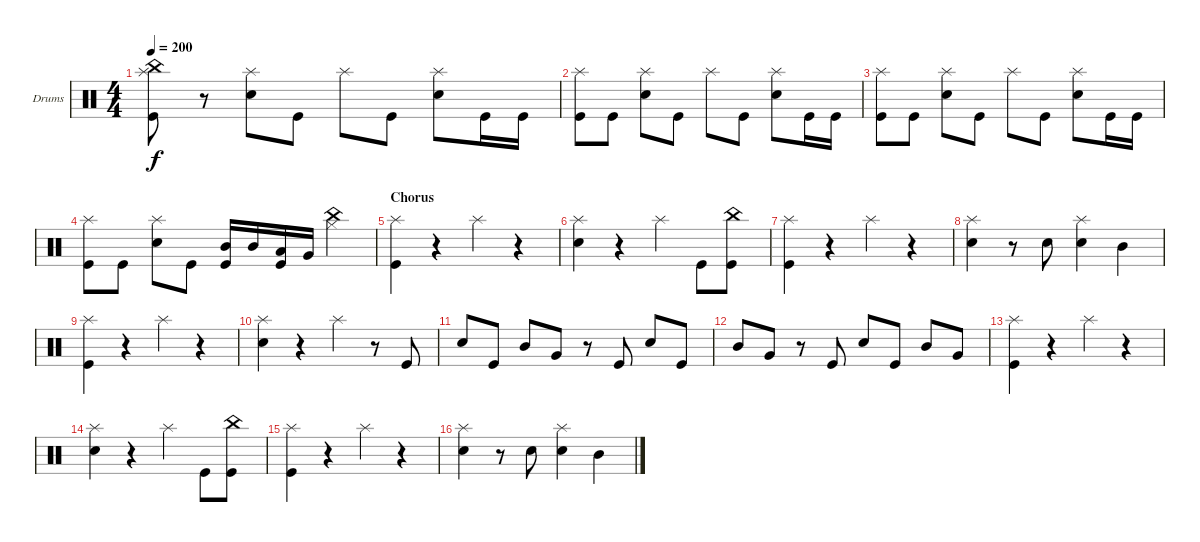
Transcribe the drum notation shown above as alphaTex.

\defaultSystemsLayout 4
\bracketExtendMode groupsimilarinstruments
\firstSystemTrackNameOrientation horizontal
\otherSystemsTrackNameOrientation horizontal
\track ("Drumkit" "Drums") {instrument percussion}
\staff {score}
\articulation defaults
\ts (4 4)
\tempo 200
\clef neutral
\ks c
("Splash (hit)" "Kick (hit)" "China (hit)").8{dy f} r.8 ("Splash (hit)" "Snare (hit) 2").8 "Kick (hit)".8 "Splash (hit)".8 "Kick (hit)".8 ("Splash (hit)" "Snare (hit) 2").8 "Kick (hit)".16 "Kick (hit)".16 |
("Splash (hit)" "Kick (hit)").8 "Kick (hit)".8 ("Splash (hit)" "Snare (hit) 2").8 "Kick (hit)".8 "Splash (hit)".8 "Kick (hit)".8 ("Splash (hit)" "Snare (hit) 2").8 "Kick (hit)".16 "Kick (hit)".16 |
("Splash (hit)" "Kick (hit)").8 "Kick (hit)".8 ("Splash (hit)" "Snare (hit) 2").8 "Kick (hit)".8 "Splash (hit)".8 "Kick (hit)".8 ("Splash (hit)" "Snare (hit) 2").8 "Kick (hit)".16 "Kick (hit)".16 |
("Splash (hit)" "Kick (hit)").8 "Kick (hit)".8 ("Splash (hit)" "Snare (hit) 2").8 "Kick (hit)".8 ("Mid Tom (hit)" "Kick (hit)").16 "Mid Tom (hit)".16 ("Low Tom (hit)" "Kick (hit)").16 "Very Low Tom (hit)".16 ("China (hit)" "Hi-Hat (closed)").4 |
\section ("" "Chorus")
("Splash (hit)" "Kick (hit)").4 r.4 "Splash (hit)".4 r.4 |
("Splash (hit)" "Snare (hit) 2").4 r.4 "Splash (hit)".4 "Kick (hit)".8 ("Kick (hit)" "China (hit)").8 |
("Splash (hit)" "Kick (hit)").4 r.4 "Splash (hit)".4 r.4 |
("Splash (hit)" "Snare (hit) 2").4 r.8 "Snare (hit) 2".8 ("Splash (hit)" "Snare (hit) 2").4 "Mid Tom (hit)".4 |
("Splash (hit)" "Kick (hit)").4 r.4 "Splash (hit)".4 r.4 |
("Splash (hit)" "Snare (hit) 2").4 r.4 "Splash (hit)".4 r.8 "Kick (hit)".8 |
"Snare (hit) 2".8 "Kick (hit)".8 "Mid Tom (hit)".8 "Very Low Tom (hit)".8 r.8 "Kick (hit)".8 "Snare (hit) 2".8 "Kick (hit)".8 |
"Mid Tom (hit)".8 "Very Low Tom (hit)".8 r.8 "Kick (hit)".8 "Snare (hit) 2".8 "Kick (hit)".8 "Mid Tom (hit)".8 "Very Low Tom (hit)".8 |
("Splash (hit)" "Kick (hit)").4 r.4 "Splash (hit)".4 r.4 |
("Splash (hit)" "Snare (hit) 2").4 r.4 "Splash (hit)".4 "Kick (hit)".8 ("Kick (hit)" "China (hit)").8 |
("Splash (hit)" "Kick (hit)").4 r.4 "Splash (hit)".4 r.4 |
("Splash (hit)" "Snare (hit) 2").4 r.8 "Snare (hit) 2".8 ("Splash (hit)" "Snare (hit) 2").4 "Mid Tom (hit)".4
